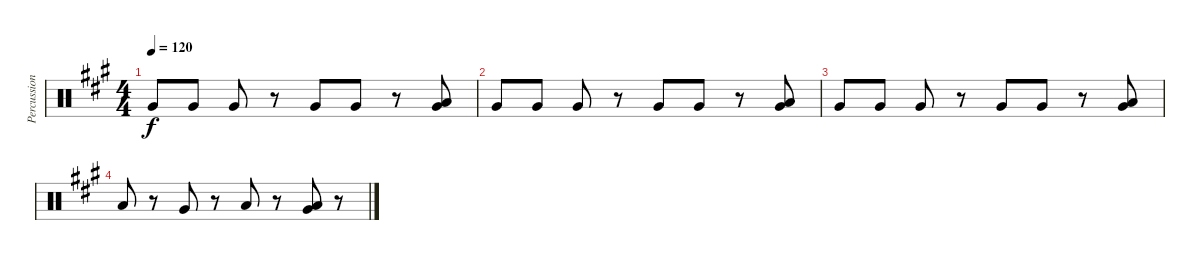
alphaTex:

\track ("Percussion" "Percussion") {instrument percussion}
\staff {score}
\articulation defaults
\ts (4 4)
\tempo 120
\clef neutral
\ks f#minor "Very Low Tom (hit)".8{dy f} "Very Low Tom (hit)".8 "Very Low Tom (hit)".8
r.8 "Very Low Tom (hit)".8 "Very Low Tom (hit)".8 r.8 ("Very Low Tom (hit)" "Low Floor Tom (hit)").8 |
"Very Low Tom (hit)".8 "Very Low Tom (hit)".8 "Very Low Tom (hit)".8 r.8 "Very Low Tom (hit)".8 "Very Low Tom (hit)".8 r.8 ("Very Low Tom (hit)" "Low Floor Tom (hit)").8 |
"Very Low Tom (hit)".8 "Very Low Tom (hit)".8 "Very Low Tom (hit)".8 r.8 "Very Low Tom (hit)".8 "Very Low Tom (hit)".8 r.8 ("Very Low Tom (hit)" "Low Floor Tom (hit)").8 |
"Low Floor Tom (hit)".8 r.8 "Very Low Tom (hit)".8 r.8 "Low Tom (hit)".8 r.8 ("Low Tom (hit)" "Very Low Tom (hit)").8 r.8
